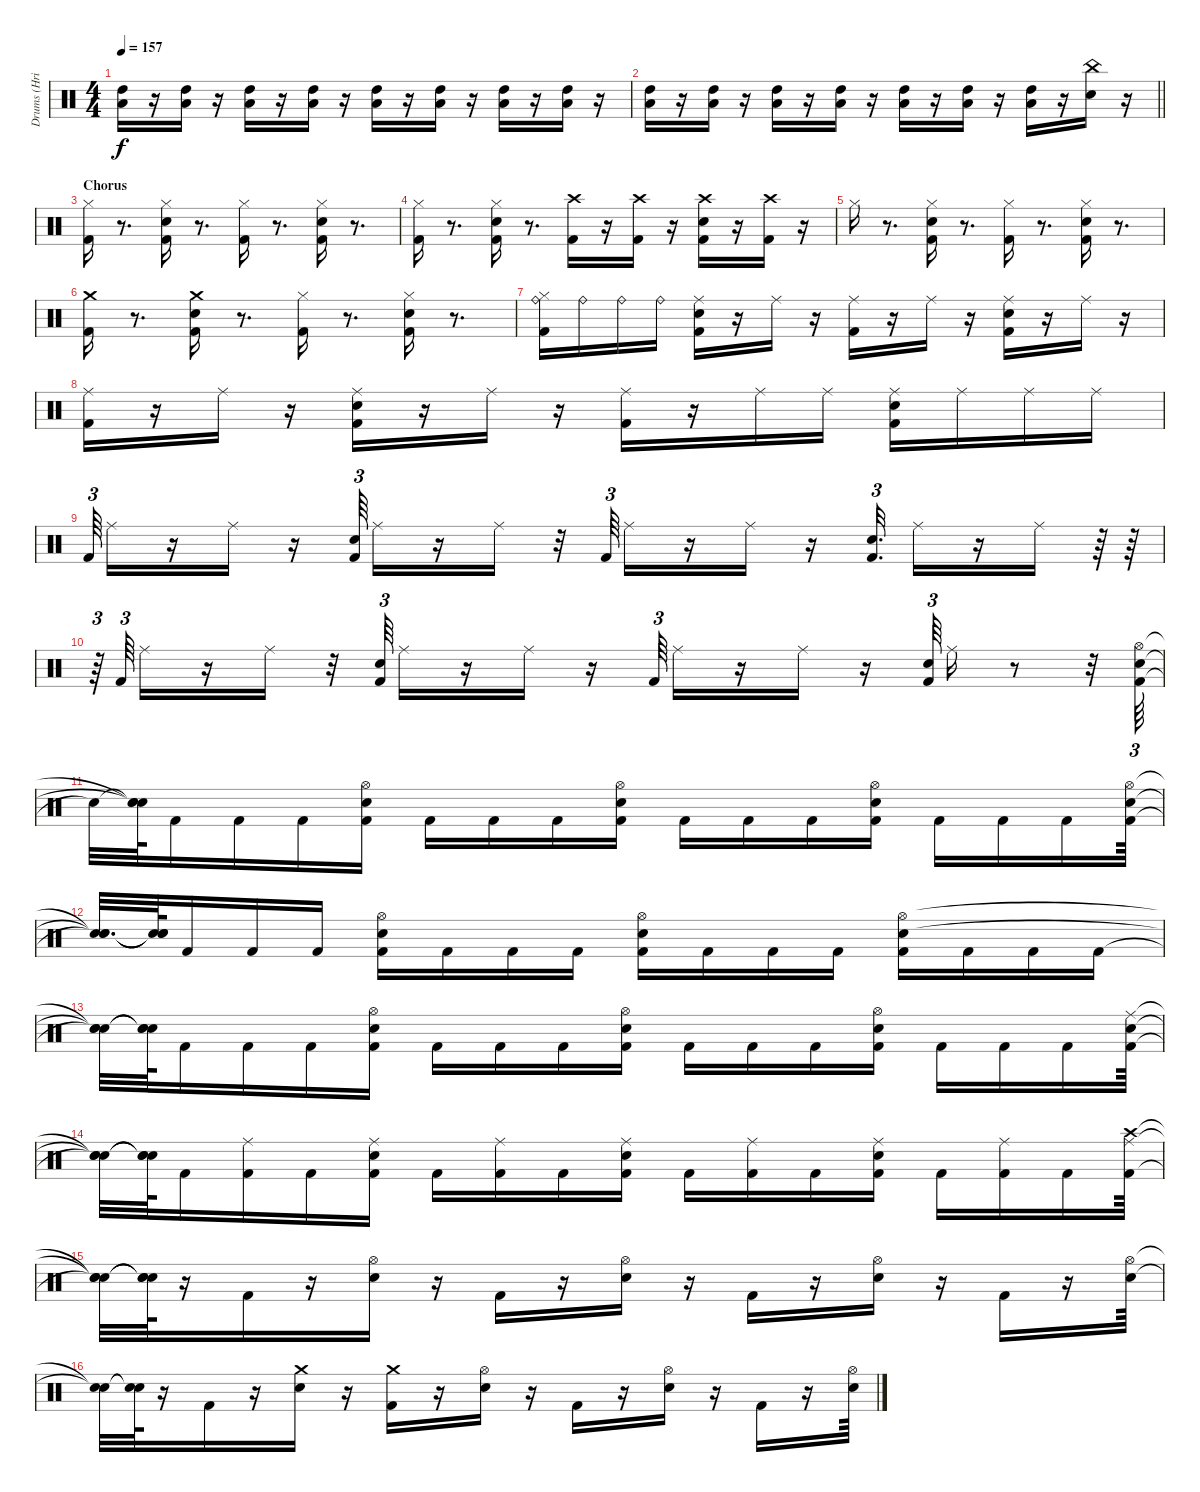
\track ("Drums (Hriso)" "Drums (Hri") {instrument percussion}
\staff {score}
\articulation defaults
\ts (4 4)
\tempo 157
\clef neutral
\ks c
("Low Tom (hit)" "High Tom (hit)").16{dy f} r.16 ("High Tom (hit)" "Low Tom (hit)").16 r.16 ("Low Tom (hit)" "High Tom (hit)").16 r.16 ("High Tom (hit)" "Low Tom (hit)").16 r.16 ("High Tom (hit)" "Low Tom (hit)").16 r.16 ("High Tom (hit)" "Low Tom (hit)").16 r.16 ("High Tom (hit)" "Low Tom (hit)").16 r.16 ("High Tom (hit)" "Low Tom (hit)").16 r.16 |
\barLineRight lightlight
("Low Tom (hit)" "High Tom (hit)").16 r.16 ("High Tom (hit)" "Low Tom (hit)").16 r.16 ("High Tom (hit)" "Low Tom (hit)").16 r.16 ("High Tom (hit)" "Low Tom (hit)").16 r.16 ("High Tom (hit)" "Low Tom (hit)").16 r.16 ("High Tom (hit)" "Low Tom (hit)").16 r.16 ("High Tom (hit)" "Low Tom (hit)").16 r.16 ("China (hit)" "Snare (hit) 2").16 r.16 |
\section ("" "Chorus")
("Kick (hit) 2" "Hi-Hat (closed)").16 r.8{d} ("Kick (hit) 2" "Snare (hit) 2" "Hi-Hat (closed)").16 r.8{d} ("Kick (hit) 2" "Hi-Hat (closed)").16 r.8{d} ("Kick (hit) 2" "Snare (hit) 2" "Hi-Hat (closed)").16 r.8{d} |
("Kick (hit) 2" "Hi-Hat (closed)").16 r.8{d} ("Hi-Hat (closed)" "Kick (hit) 2" "Snare (hit) 2").16 r.8{d} ("Kick (hit) 2" "Crash high (hit)").16 r.16 ("Kick (hit) 2" "Crash high (hit)").16 r.16 ("Snare (hit) 2" "Kick (hit) 2" "Crash high (hit)").16 r.16 ("Kick (hit) 2" "Crash high (hit)").16 r.16 |
"Hi-Hat (closed)".16 r.8{d} ("Kick (hit) 2" "Snare (hit) 2" "Hi-Hat (closed)").16 r.8{d} ("Kick (hit) 2" "Hi-Hat (closed)").16 r.8{d} ("Snare (hit) 2" "Kick (hit) 2" "Hi-Hat (closed)").16 r.8{d} |
("Crash medium (hit)" "Kick (hit) 2").16 r.8{d} ("Crash medium (hit)" "Snare (hit) 2" "Kick (hit) 2").16 r.8{d} ("Kick (hit) 2" "Hi-Hat (closed)").16 r.8{d} ("Kick (hit) 2" "Snare (hit) 2" "Hi-Hat (closed)").16 r.8{d} |
("Hi-Hat (closed)" "Kick (hit) 2" "Ride (bell)").16 "Ride (bell)".16 "Ride (bell)".16 "Ride (bell)".16 ("Snare (hit) 2" "Kick (hit) 2" "Ride (middle)").16 r.16 "Ride (middle)".16 r.16 ("Kick (hit) 2" "Ride (middle)").16 r.16 "Ride (middle)".16 r.16 ("Snare (hit) 2" "Kick (hit) 2" "Ride (middle)").16 r.16 "Ride (middle)".16 r.16 |
("Kick (hit) 2" "Ride (middle)").16 r.16 "Ride (middle)".16 r.16 ("Snare (hit) 2" "Kick (hit) 2" "Ride (middle)").16 r.16 "Ride (middle)".16 r.16 ("Kick (hit) 2" "Ride (middle)").16 r.16 "Ride (middle)".16 "Ride (middle)".16 ("Ride (middle)" "Kick (hit) 2" "Snare (hit) 2").16 "Ride (middle)".16 "Ride (middle)".16 "Ride (middle)".16 |
"Kick (hit) 2".64{tu (3 2)} "Ride (middle)".16 r.16 "Ride (middle)".16 r.16 ("Kick (hit) 2" "Snare (hit) 2").64{tu (3 2)} "Ride (middle)".16 r.16 "Ride (middle)".16 r.32 "Kick (hit) 2".64{tu (3 2)} "Ride (middle)".16 r.16 "Ride (middle)".16 r.16 ("Kick (hit) 2" "Snare (hit) 2").32{d tu (3 2)} "Ride (middle)".16 r.16 "Ride (middle)".16 r.64 r.64 |
r.64{tu (3 2)} "Kick (hit) 2".64{tu (3 2)} "Ride (middle)".16 r.16 "Ride (middle)".16 r.32 ("Kick (hit) 2" "Snare (hit) 2").64{tu (3 2)} "Ride (middle)".16 r.16 "Ride (middle)".16 r.16 "Kick (hit) 2".64{tu (3 2)} "Ride (middle)".16 r.16 "Ride (middle)".16 r.16 ("Kick (hit) 2" "Snare (hit) 2").64{tu (3 2)} "Ride (middle)".16 r.8 r.32 ("Kick (hit) 2" "Snare (hit) 2" "Hi-Hat (open)").64{tu (3 2)} |
"Snare (hit)"{t}.32 ("Snare (hit)"{t} "Snare (hit)"{t} "Snare (hit)"{t}).64 "Kick (hit) 2".16 "Kick (hit) 2".16 "Kick (hit) 2".16 ("Kick (hit) 2" "Snare (hit) 2" "Hi-Hat (open)").16 "Kick (hit) 2".16 "Kick (hit) 2".16 "Kick (hit) 2".16 ("Kick (hit) 2" "Snare (hit) 2" "Hi-Hat (open)").16 "Kick (hit) 2".16 "Kick (hit) 2".16 "Kick (hit) 2".16 ("Kick (hit) 2" "Snare (hit) 2" "Hi-Hat (open)").16 "Kick (hit) 2".16 "Kick (hit) 2".16 "Kick (hit) 2".16 ("Kick (hit) 2" "Snare (hit) 2" "Hi-Hat (open)").64 |
("Snare (hit)"{t} "Snare (hit)"{t} "Snare (hit)"{t}).32{d} ("Snare (hit)"{t} "Snare (hit)"{t} "Snare (hit)"{t}).64 "Kick (hit) 2".16 "Kick (hit) 2".16 "Kick (hit) 2".16 ("Kick (hit) 2" "Snare (hit) 2" "Hi-Hat (open)").16 "Kick (hit) 2".16 "Kick (hit) 2".16 "Kick (hit) 2".16 ("Kick (hit) 2" "Snare (hit) 2" "Hi-Hat (open)").16 "Kick (hit) 2".16 "Kick (hit) 2".16 "Kick (hit) 2".16 ("Kick (hit) 2" "Snare (hit) 2" "Hi-Hat (open)").16 "Kick (hit) 2".16 "Kick (hit) 2".16 "Kick (hit) 2".16 |
("Snare (hit)"{t} "Snare (hit)"{t} "Snare (hit)"{t}).32 ("Snare (hit)"{t} "Snare (hit)"{t} "Snare (hit)"{t}).64 "Kick (hit) 2".16 "Kick (hit) 2".16 "Kick (hit) 2".16 ("Kick (hit) 2" "Snare (hit) 2" "Hi-Hat (open)").16 "Kick (hit) 2".16 "Kick (hit) 2".16 "Kick (hit) 2".16 ("Kick (hit) 2" "Snare (hit) 2" "Hi-Hat (open)").16 "Kick (hit) 2".16 "Kick (hit) 2".16 "Kick (hit) 2".16 ("Kick (hit) 2" "Snare (hit) 2" "Hi-Hat (open)").16 "Kick (hit) 2".16 "Kick (hit) 2".16 "Kick (hit) 2".16 ("Ride (middle)" "Kick (hit) 2" "Snare (hit) 2").64 |
("Snare (hit)"{t} "Snare (hit)"{t} "Snare (hit)"{t}).32 ("Snare (hit)"{t} "Snare (hit)"{t} "Snare (hit)"{t}).64 "Kick (hit) 2".16 ("Ride (middle)" "Kick (hit) 2").16 "Kick (hit) 2".16 ("Ride (middle)" "Kick (hit) 2" "Snare (hit) 2").16 "Kick (hit) 2".16 ("Ride (middle)" "Kick (hit) 2").16 "Kick (hit) 2".16 ("Ride (middle)" "Snare (hit) 2" "Kick (hit) 2").16 "Kick (hit) 2".16 ("Ride (middle)" "Kick (hit) 2").16 "Kick (hit) 2".16 ("Ride (middle)" "Snare (hit) 2" "Kick (hit) 2").16 "Kick (hit) 2".16 ("Ride (middle)" "Kick (hit) 2").16 "Kick (hit) 2".16 ("Crash high (hit)" "Ride (middle)" "Kick (hit) 2").64 |
("Snare (hit)"{t} "Snare (hit)"{t} "Snare (hit)"{t}).32 ("Snare (hit)"{t} "Snare (hit)"{t} "Snare (hit)"{t}).64 r.16 "Kick (hit) 2".16 r.16 ("Snare (hit) 2" "Hi-Hat (open)").16 r.16 "Kick (hit) 2".16 r.16 ("Snare (hit) 2" "Hi-Hat (open)").16 r.16 "Kick (hit) 2".16 r.16 ("Snare (hit) 2" "Hi-Hat (open)").16 r.16 "Kick (hit) 2".16 r.16 ("Snare (hit) 2" "Hi-Hat (open)").64 |
("Snare (hit)"{t} "Snare (hit)"{t}).32 ("Snare (hit)"{t} "Snare (hit)"{t}).64 r.16 "Kick (hit) 2".16 r.16 ("Snare (hit) 2" "Crash medium (hit)").16 r.16 ("Kick (hit) 2" "Crash medium (hit)").16 r.16 ("Snare (hit) 2" "Hi-Hat (open)").16 r.16 "Kick (hit) 2".16 r.16 ("Snare (hit) 2" "Hi-Hat (open)").16 r.16 "Kick (hit) 2".16 r.16 ("Snare (hit) 2" "Hi-Hat (open)").64
